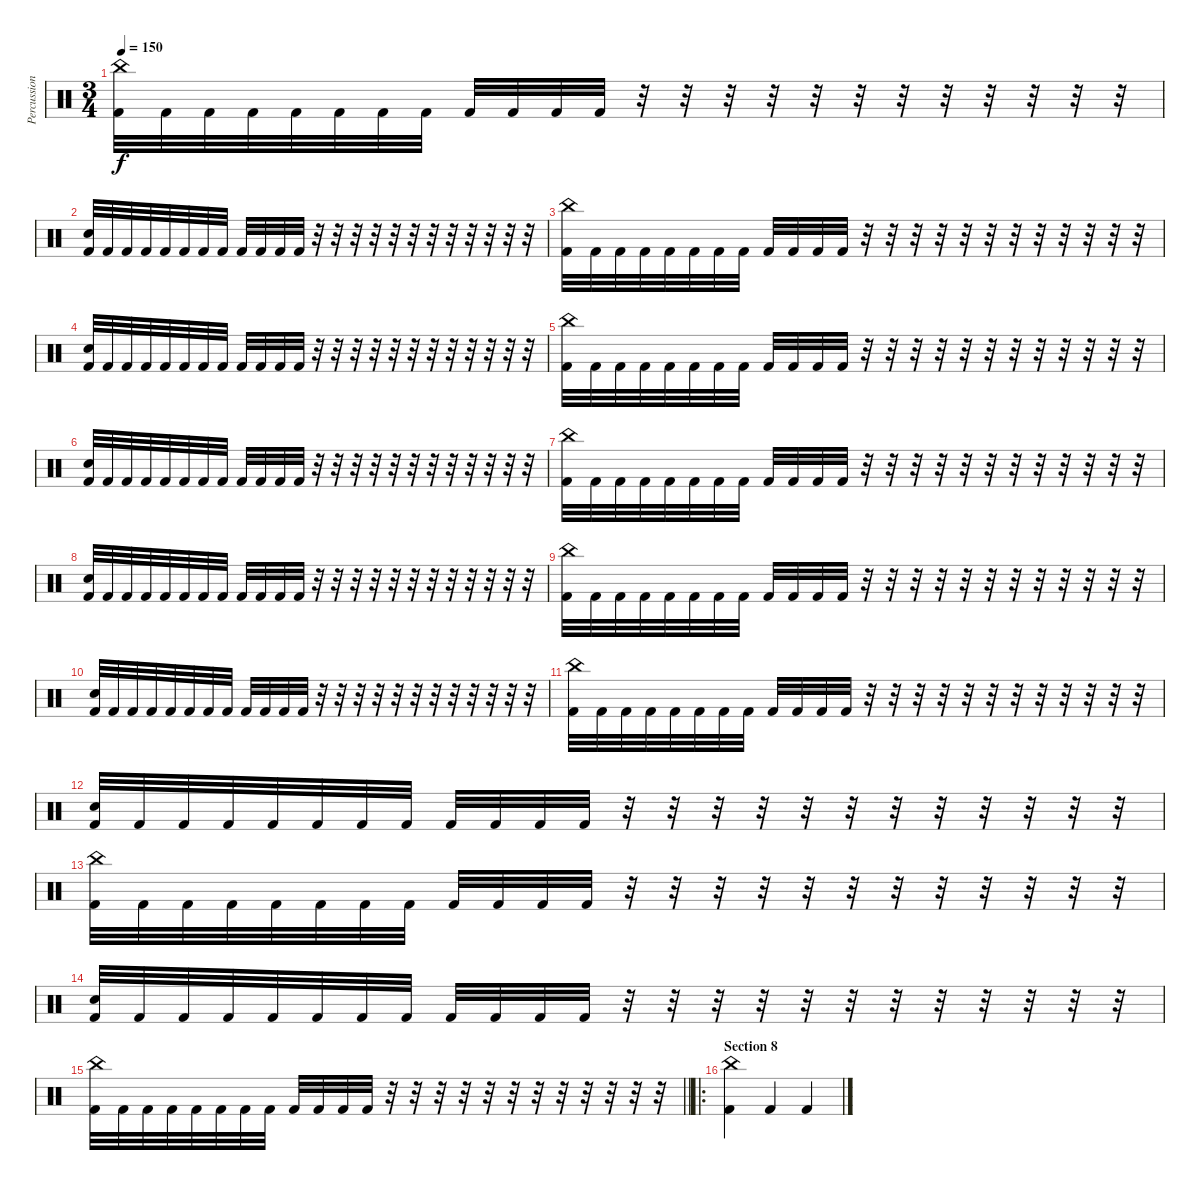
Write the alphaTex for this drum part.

\track ("Percussions" "Percussion") {instrument percussion}
\staff {score}
\articulation defaults
\ts (3 4)
\tempo 150
\clef neutral
\ks c
("China (hit)" "Kick (hit) 2").32{dy f} "Kick (hit) 2".32 "Kick (hit) 2".32 "Kick (hit) 2".32 "Kick (hit) 2".32 "Kick (hit) 2".32 "Kick (hit) 2".32 "Kick (hit) 2".32 "Kick (hit) 2".32 "Kick (hit) 2".32 "Kick (hit) 2".32 "Kick (hit) 2".32 r.32 r.32 r.32 r.32 r.32 r.32 r.32 r.32 r.32 r.32 r.32 r.32 |
("Electric Snare (hit)" "Kick (hit) 2").32 "Kick (hit) 2".32 "Kick (hit) 2".32 "Kick (hit) 2".32 "Kick (hit) 2".32 "Kick (hit) 2".32 "Kick (hit) 2".32 "Kick (hit) 2".32 "Kick (hit) 2".32 "Kick (hit) 2".32 "Kick (hit) 2".32 "Kick (hit) 2".32 r.32 r.32 r.32 r.32 r.32 r.32 r.32 r.32 r.32 r.32 r.32 r.32 |
("China (hit)" "Kick (hit) 2").32 "Kick (hit) 2".32 "Kick (hit) 2".32 "Kick (hit) 2".32 "Kick (hit) 2".32 "Kick (hit) 2".32 "Kick (hit) 2".32 "Kick (hit) 2".32 "Kick (hit) 2".32 "Kick (hit) 2".32 "Kick (hit) 2".32 "Kick (hit) 2".32 r.32 r.32 r.32 r.32 r.32 r.32 r.32 r.32 r.32 r.32 r.32 r.32 |
("Electric Snare (hit)" "Kick (hit) 2").32 "Kick (hit) 2".32 "Kick (hit) 2".32 "Kick (hit) 2".32 "Kick (hit) 2".32 "Kick (hit) 2".32 "Kick (hit) 2".32 "Kick (hit) 2".32 "Kick (hit) 2".32 "Kick (hit) 2".32 "Kick (hit) 2".32 "Kick (hit) 2".32 r.32 r.32 r.32 r.32 r.32 r.32 r.32 r.32 r.32 r.32 r.32 r.32 |
("China (hit)" "Kick (hit) 2").32 "Kick (hit) 2".32 "Kick (hit) 2".32 "Kick (hit) 2".32 "Kick (hit) 2".32 "Kick (hit) 2".32 "Kick (hit) 2".32 "Kick (hit) 2".32 "Kick (hit) 2".32 "Kick (hit) 2".32 "Kick (hit) 2".32 "Kick (hit) 2".32 r.32 r.32 r.32 r.32 r.32 r.32 r.32 r.32 r.32 r.32 r.32 r.32 |
("Electric Snare (hit)" "Kick (hit) 2").32 "Kick (hit) 2".32 "Kick (hit) 2".32 "Kick (hit) 2".32 "Kick (hit) 2".32 "Kick (hit) 2".32 "Kick (hit) 2".32 "Kick (hit) 2".32 "Kick (hit) 2".32 "Kick (hit) 2".32 "Kick (hit) 2".32 "Kick (hit) 2".32 r.32 r.32 r.32 r.32 r.32 r.32 r.32 r.32 r.32 r.32 r.32 r.32 |
("China (hit)" "Kick (hit) 2").32 "Kick (hit) 2".32 "Kick (hit) 2".32 "Kick (hit) 2".32 "Kick (hit) 2".32 "Kick (hit) 2".32 "Kick (hit) 2".32 "Kick (hit) 2".32 "Kick (hit) 2".32 "Kick (hit) 2".32 "Kick (hit) 2".32 "Kick (hit) 2".32 r.32 r.32 r.32 r.32 r.32 r.32 r.32 r.32 r.32 r.32 r.32 r.32 |
("Electric Snare (hit)" "Kick (hit) 2").32 "Kick (hit) 2".32 "Kick (hit) 2".32 "Kick (hit) 2".32 "Kick (hit) 2".32 "Kick (hit) 2".32 "Kick (hit) 2".32 "Kick (hit) 2".32 "Kick (hit) 2".32 "Kick (hit) 2".32 "Kick (hit) 2".32 "Kick (hit) 2".32 r.32 r.32 r.32 r.32 r.32 r.32 r.32 r.32 r.32 r.32 r.32 r.32 |
("China (hit)" "Kick (hit) 2").32 "Kick (hit) 2".32 "Kick (hit) 2".32 "Kick (hit) 2".32 "Kick (hit) 2".32 "Kick (hit) 2".32 "Kick (hit) 2".32 "Kick (hit) 2".32 "Kick (hit) 2".32 "Kick (hit) 2".32 "Kick (hit) 2".32 "Kick (hit) 2".32 r.32 r.32 r.32 r.32 r.32 r.32 r.32 r.32 r.32 r.32 r.32 r.32 |
("Electric Snare (hit)" "Kick (hit) 2").32 "Kick (hit) 2".32 "Kick (hit) 2".32 "Kick (hit) 2".32 "Kick (hit) 2".32 "Kick (hit) 2".32 "Kick (hit) 2".32 "Kick (hit) 2".32 "Kick (hit) 2".32 "Kick (hit) 2".32 "Kick (hit) 2".32 "Kick (hit) 2".32 r.32 r.32 r.32 r.32 r.32 r.32 r.32 r.32 r.32 r.32 r.32 r.32 |
("China (hit)" "Kick (hit) 2").32 "Kick (hit) 2".32 "Kick (hit) 2".32 "Kick (hit) 2".32 "Kick (hit) 2".32 "Kick (hit) 2".32 "Kick (hit) 2".32 "Kick (hit) 2".32 "Kick (hit) 2".32 "Kick (hit) 2".32 "Kick (hit) 2".32 "Kick (hit) 2".32 r.32 r.32 r.32 r.32 r.32 r.32 r.32 r.32 r.32 r.32 r.32 r.32 |
("Electric Snare (hit)" "Kick (hit) 2").32 "Kick (hit) 2".32 "Kick (hit) 2".32 "Kick (hit) 2".32 "Kick (hit) 2".32 "Kick (hit) 2".32 "Kick (hit) 2".32 "Kick (hit) 2".32 "Kick (hit) 2".32 "Kick (hit) 2".32 "Kick (hit) 2".32 "Kick (hit) 2".32 r.32 r.32 r.32 r.32 r.32 r.32 r.32 r.32 r.32 r.32 r.32 r.32 |
("China (hit)" "Kick (hit) 2").32 "Kick (hit) 2".32 "Kick (hit) 2".32 "Kick (hit) 2".32 "Kick (hit) 2".32 "Kick (hit) 2".32 "Kick (hit) 2".32 "Kick (hit) 2".32 "Kick (hit) 2".32 "Kick (hit) 2".32 "Kick (hit) 2".32 "Kick (hit) 2".32 r.32 r.32 r.32 r.32 r.32 r.32 r.32 r.32 r.32 r.32 r.32 r.32 |
("Electric Snare (hit)" "Kick (hit) 2").32 "Kick (hit) 2".32 "Kick (hit) 2".32 "Kick (hit) 2".32 "Kick (hit) 2".32 "Kick (hit) 2".32 "Kick (hit) 2".32 "Kick (hit) 2".32 "Kick (hit) 2".32 "Kick (hit) 2".32 "Kick (hit) 2".32 "Kick (hit) 2".32 r.32 r.32 r.32 r.32 r.32 r.32 r.32 r.32 r.32 r.32 r.32 r.32 |
\barLineRight lightlight
("China (hit)" "Kick (hit) 2").32 "Kick (hit) 2".32 "Kick (hit) 2".32 "Kick (hit) 2".32 "Kick (hit) 2".32 "Kick (hit) 2".32 "Kick (hit) 2".32 "Kick (hit) 2".32 "Kick (hit) 2".32 "Kick (hit) 2".32 "Kick (hit) 2".32 "Kick (hit) 2".32 r.32 r.32 r.32 r.32 r.32 r.32 r.32 r.32 r.32 r.32 r.32 r.32 |
\ro
\section ("" "Section 8")
("China (hit)" "Kick (hit) 2").4 "Kick (hit) 2".4 "Kick (hit) 2".4
